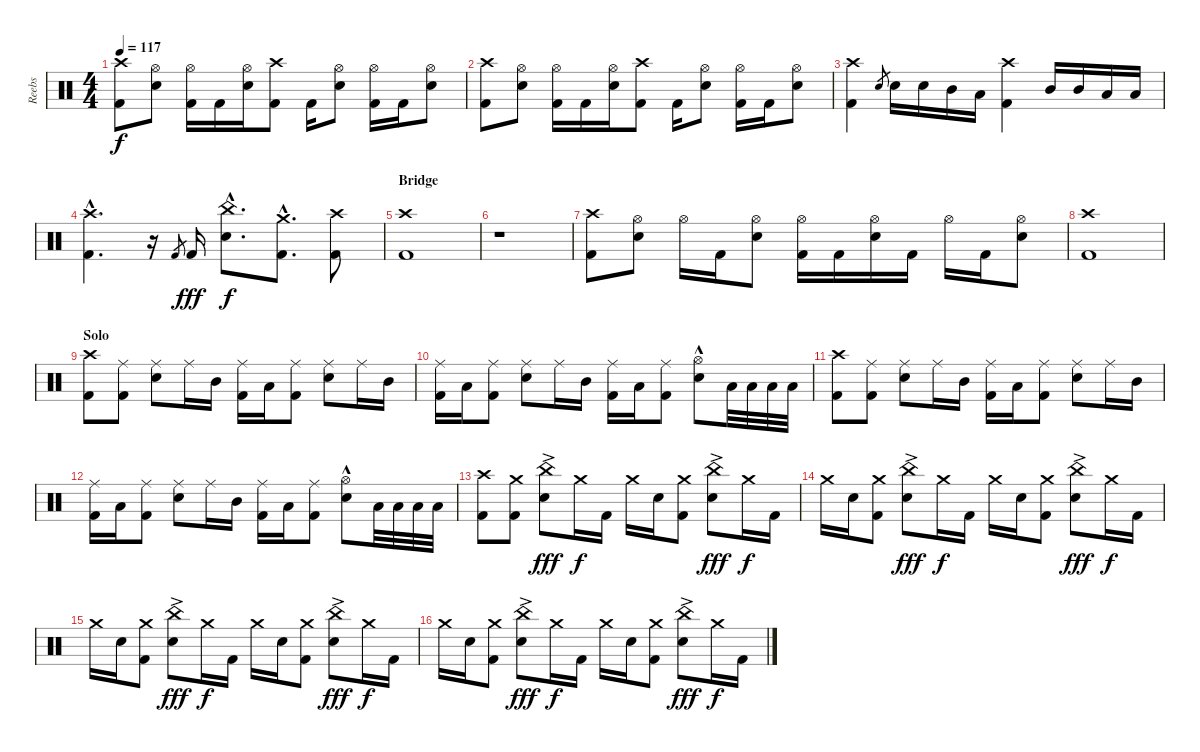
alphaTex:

\track ("Reebs" "Reebs") {instrument percussion}
\staff {score}
\articulation defaults
\ts (4 4)
\tempo 117
\clef neutral
\ks c
("Crash high (hit)" "Kick (hit) 2").8{dy f} ("Hi-Hat (open)" "Electric Snare (hit)").8 ("Hi-Hat (open)" "Kick (hit) 2").16 "Kick (hit) 2".16 ("Hi-Hat (open)" "Electric Snare (hit)").16 ("Crash high (hit)" "Kick (hit) 2").8 "Kick (hit) 2".16 ("Hi-Hat (open)" "Electric Snare (hit)").8 ("Hi-Hat (open)" "Kick (hit) 2").16 "Kick (hit) 2".16 ("Hi-Hat (open)" "Electric Snare (hit)").8 |
("Crash high (hit)" "Kick (hit) 2").8 ("Hi-Hat (open)" "Electric Snare (hit)").8 ("Hi-Hat (open)" "Kick (hit) 2").16 "Kick (hit) 2".16 ("Hi-Hat (open)" "Electric Snare (hit)").16 ("Crash high (hit)" "Kick (hit) 2").8 "Kick (hit) 2".16 ("Hi-Hat (open)" "Electric Snare (hit)").8 ("Hi-Hat (open)" "Kick (hit) 2").16 "Kick (hit) 2".16 ("Hi-Hat (open)" "Electric Snare (hit)").8 |
("Crash high (hit)" "Kick (hit) 2").4 "Electric Snare (hit)".8{gr} "Electric Snare (hit)".16 "Electric Snare (hit)".16 "Mid Tom (hit)".16 "Low Tom (hit)".16 ("Crash high (hit)" "Kick (hit) 2").4 "Mid Tom (hit)".16 "Mid Tom (hit)".16 "Low Tom (hit)".16 "Low Tom (hit)".16 |
("Crash high (hit)"{hac} "Kick (hit) 2"{hac}).4{d} r.16 "Kick (hit) 2".8{gr} "Kick (hit) 2".16{dy fff} ("China (hit)"{hac} "Electric Snare (hit)"{hac}).8{d dy f} ("Crash medium (hit)"{hac} "Kick (hit) 2"{hac}).8{d} ("Crash high (hit)" "Kick (hit) 2").8 |
\section ("" "Bridge")
("Crash high (hit)" "Kick (hit) 2").1 |
r.1 |
("Crash high (hit)" "Kick (hit) 2").8 ("Hi-Hat (open)" "Electric Snare (hit)").8 "Hi-Hat (open)".16 "Kick (hit) 2".16 ("Hi-Hat (open)" "Electric Snare (hit)").8 ("Hi-Hat (open)" "Kick (hit) 2").16 "Kick (hit) 2".16 ("Hi-Hat (open)" "Electric Snare (hit)").16 "Kick (hit) 2".16 "Hi-Hat (open)".16 "Kick (hit) 2".16 ("Hi-Hat (open)" "Electric Snare (hit)").8 |
("Crash high (hit)" "Kick (hit) 2").1 |
\section ("" "Solo")
("Crash high (hit)" "Kick (hit) 2").8 ("Ride (middle)" "Kick (hit) 2").8 ("Ride (middle)" "Electric Snare (hit)").8 "Ride (middle)".16 "Mid Tom (hit)".16 ("Ride (middle)" "Kick (hit) 2").16 "Low Tom (hit)".16 ("Ride (middle)" "Kick (hit) 2").8 ("Ride (middle)" "Electric Snare (hit)").8 "Ride (middle)".16 "Mid Tom (hit)".16 |
("Ride (middle)" "Kick (hit) 2").16 "Low Tom (hit)".16 ("Ride (middle)" "Kick (hit) 2").8 ("Ride (middle)" "Electric Snare (hit)").8 "Ride (middle)".16 "Mid Tom (hit)".16 ("Ride (middle)" "Kick (hit) 2").16 "Low Tom (hit)".16 ("Ride (middle)" "Kick (hit) 2").8 ("Hi-Hat (open)" "Electric Snare (hit)"{hac}).8 "Low Tom (hit)".32 "Low Tom (hit)".32 "Low Tom (hit)".32 "Low Tom (hit)".32 |
("Crash high (hit)" "Kick (hit) 2").8 ("Ride (middle)" "Kick (hit) 2").8 ("Ride (middle)" "Electric Snare (hit)").8 "Ride (middle)".16 "Mid Tom (hit)".16 ("Ride (middle)" "Kick (hit) 2").16 "Low Tom (hit)".16 ("Ride (middle)" "Kick (hit) 2").8 ("Ride (middle)" "Electric Snare (hit)").8 "Ride (middle)".16 "Mid Tom (hit)".16 |
("Ride (middle)" "Kick (hit) 2").16 "Low Tom (hit)".16 ("Ride (middle)" "Kick (hit) 2").8 ("Ride (middle)" "Electric Snare (hit)").8 "Ride (middle)".16 "Mid Tom (hit)".16 ("Ride (middle)" "Kick (hit) 2").16 "Low Tom (hit)".16 ("Ride (middle)" "Kick (hit) 2").8 ("Hi-Hat (open)" "Electric Snare (hit)"{hac}).8 "Low Floor Tom (hit)".32 "Low Floor Tom (hit)".32 "Low Floor Tom (hit)".32 "Low Floor Tom (hit)".32 |
("Crash high (hit)" "Kick (hit) 2").8 ("Crash medium (hit)" "Kick (hit) 2").8 ("China (hit)" "Electric Snare (hit)"{ac}).8{dy fff} "Crash medium (hit)".16{dy f} "Kick (hit) 2".16 "Crash medium (hit)".16 "Electric Snare (hit)".16 ("Crash medium (hit)" "Kick (hit) 2").8 ("China (hit)" "Electric Snare (hit)"{ac}).8{dy fff} "Crash medium (hit)".16{dy f} "Kick (hit) 2".16 |
"Crash medium (hit)".16 "Electric Snare (hit)".16 ("Crash medium (hit)" "Kick (hit) 2").8 ("China (hit)" "Electric Snare (hit)"{ac}).8{dy fff} "Crash medium (hit)".16{dy f} "Kick (hit) 2".16 "Crash medium (hit)".16 "Electric Snare (hit)".16 ("Crash medium (hit)" "Kick (hit) 2").8 ("China (hit)" "Electric Snare (hit)"{ac}).8{dy fff} "Crash medium (hit)".16{dy f} "Kick (hit) 2".16 |
"Crash medium (hit)".16 "Electric Snare (hit)".16 ("Crash medium (hit)" "Kick (hit) 2").8 ("China (hit)" "Electric Snare (hit)"{ac}).8{dy fff} "Crash medium (hit)".16{dy f} "Kick (hit) 2".16 "Crash medium (hit)".16 "Electric Snare (hit)".16 ("Crash medium (hit)" "Kick (hit) 2").8 ("China (hit)" "Electric Snare (hit)"{ac}).8{dy fff} "Crash medium (hit)".16{dy f} "Kick (hit) 2".16 |
"Crash medium (hit)".16 "Electric Snare (hit)".16 ("Crash medium (hit)" "Kick (hit) 2").8 ("China (hit)" "Electric Snare (hit)"{ac}).8{dy fff} "Crash medium (hit)".16{dy f} "Kick (hit) 2".16 "Crash medium (hit)".16 "Electric Snare (hit)".16 ("Crash medium (hit)" "Kick (hit) 2").8 ("China (hit)" "Electric Snare (hit)"{ac}).8{dy fff} "Crash medium (hit)".16{dy f} "Kick (hit) 2".16
